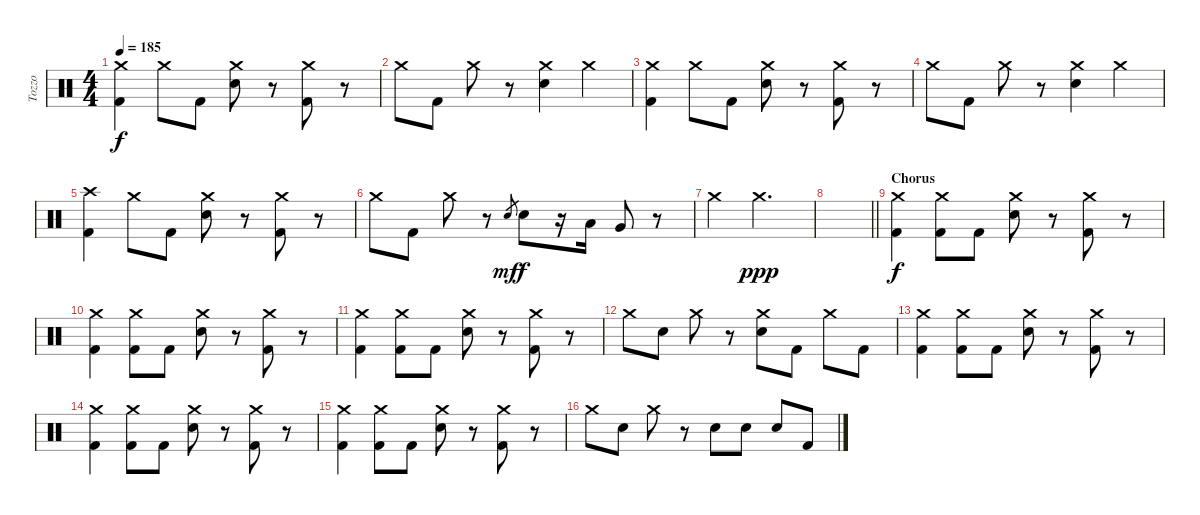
\track ("Tozzo" "Tozzo") {instrument percussion}
\staff {score}
\articulation defaults
\ts (4 4)
\tempo 185
\clef neutral
\ks c
("Crash medium (hit)" "Kick (hit) 2").4{dy f} "Crash medium (hit)".8 "Kick (hit) 2".8 ("Crash medium (hit)" "Electric Snare (hit)").8 r.8 ("Crash medium (hit)" "Kick (hit) 2").8 r.8 |
"Crash medium (hit)".8 "Kick (hit) 2".8 "Crash medium (hit)".8 r.8 ("Crash medium (hit)" "Electric Snare (hit)").4 "Crash medium (hit)".4 |
("Crash medium (hit)" "Kick (hit) 2").4 "Crash medium (hit)".8 "Kick (hit) 2".8 ("Crash medium (hit)" "Electric Snare (hit)").8 r.8 ("Crash medium (hit)" "Kick (hit) 2").8 r.8 |
"Crash medium (hit)".8 "Kick (hit) 2".8 "Crash medium (hit)".8 r.8 ("Crash medium (hit)" "Electric Snare (hit)").4 "Crash medium (hit)".4 |
("Crash high (hit)" "Kick (hit) 2").4 "Crash medium (hit)".8 "Kick (hit) 2".8 ("Crash medium (hit)" "Electric Snare (hit)").8 r.8 ("Crash medium (hit)" "Kick (hit) 2").8 r.8 |
"Crash medium (hit)".8 "Kick (hit) 2".8 "Crash medium (hit)".8 r.8 "Electric Snare (hit)".8{gr dy mf} "Electric Snare (hit)".8{dy f} r.16 "Low Tom (hit)".16 "Very Low Tom (hit)".8 r.8 |
"Crash medium (hit)".4 "Crash medium (hit)".2{d dy ppp} |
\barLineRight lightlight
|
\section ("" "Chorus")
("Crash medium (hit)" "Kick (hit) 2").4{dy f} ("Crash medium (hit)" "Kick (hit) 2").8 "Kick (hit) 2".8 ("Crash medium (hit)" "Electric Snare (hit)").8 r.8 ("Crash medium (hit)" "Kick (hit) 2").8 r.8 |
("Crash medium (hit)" "Kick (hit) 2").4 ("Crash medium (hit)" "Kick (hit) 2").8 "Kick (hit) 2".8 ("Crash medium (hit)" "Electric Snare (hit)").8 r.8 ("Crash medium (hit)" "Kick (hit) 2").8 r.8 |
("Crash medium (hit)" "Kick (hit) 2").4 ("Crash medium (hit)" "Kick (hit) 2").8 "Kick (hit) 2".8 ("Crash medium (hit)" "Electric Snare (hit)").8 r.8 ("Crash medium (hit)" "Kick (hit) 2").8 r.8 |
"Crash medium (hit)".8 "Electric Snare (hit)".8 "Crash medium (hit)".8 r.8 ("Crash medium (hit)" "Electric Snare (hit)").8 "Kick (hit) 2".8 "Crash medium (hit)".8 "Kick (hit) 2".8 |
("Crash medium (hit)" "Kick (hit) 2").4 ("Crash medium (hit)" "Kick (hit) 2").8 "Kick (hit) 2".8 ("Crash medium (hit)" "Electric Snare (hit)").8 r.8 ("Crash medium (hit)" "Kick (hit) 2").8 r.8 |
("Crash medium (hit)" "Kick (hit) 2").4 ("Crash medium (hit)" "Kick (hit) 2").8 "Kick (hit) 2".8 ("Crash medium (hit)" "Electric Snare (hit)").8 r.8 ("Crash medium (hit)" "Kick (hit) 2").8 r.8 |
("Crash medium (hit)" "Kick (hit) 2").4 ("Crash medium (hit)" "Kick (hit) 2").8 "Kick (hit) 2".8 ("Crash medium (hit)" "Electric Snare (hit)").8 r.8 ("Crash medium (hit)" "Kick (hit) 2").8 r.8 |
"Crash medium (hit)".8 "Electric Snare (hit)".8 "Crash medium (hit)".8 r.8 "Electric Snare (hit)".8 "Electric Snare (hit)".8 "Electric Snare (hit)".8 "Kick (hit) 2".8
